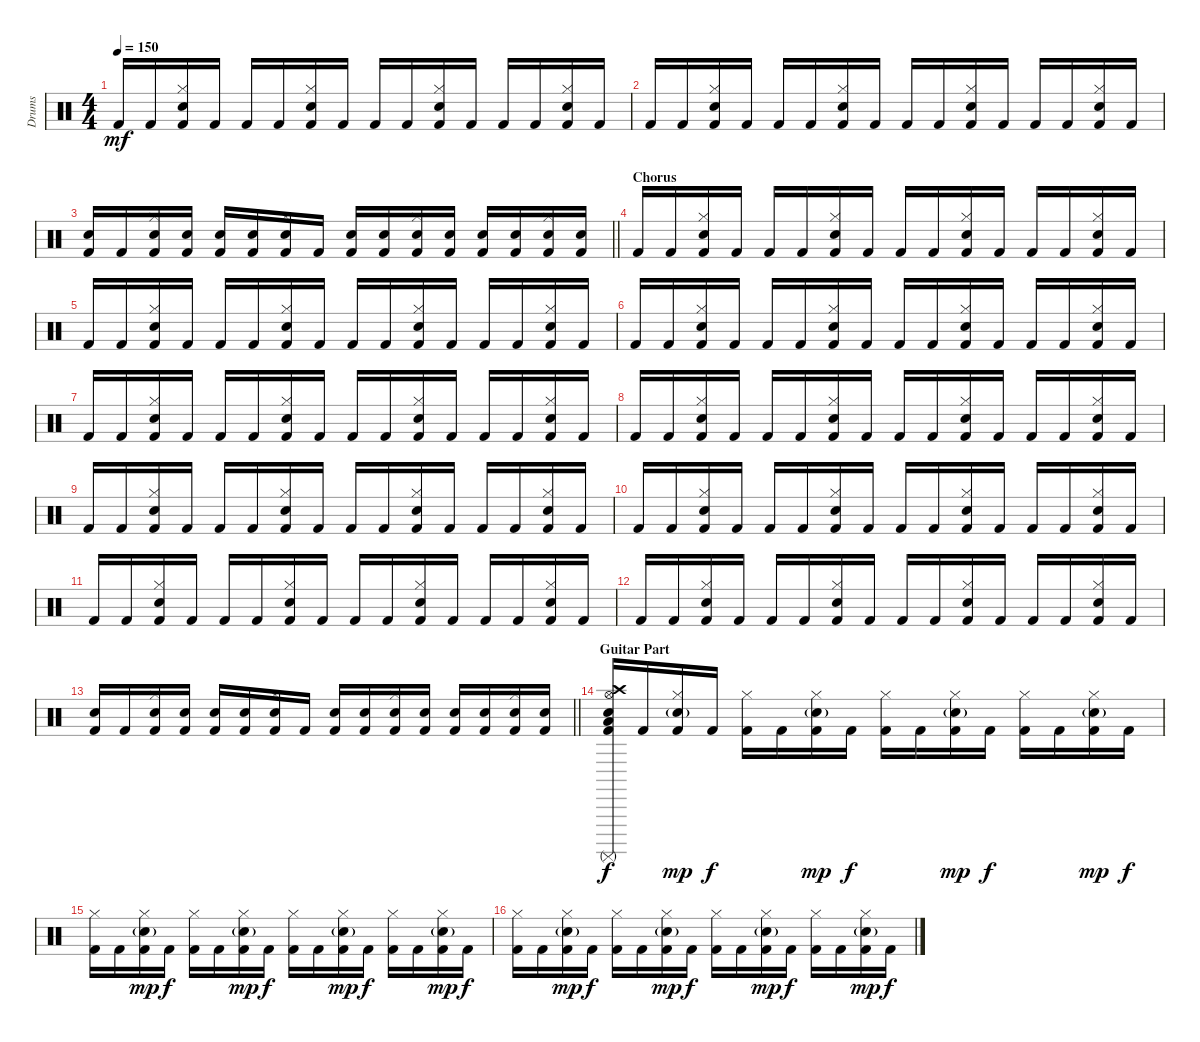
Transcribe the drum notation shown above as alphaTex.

\track ("Drums" "Drums") {instrument percussion}
\staff {score}
\articulation defaults
\ts (4 4)
\tempo 150
\clef neutral
\ks c "Kick (hit) 2".16{dy mf} "Kick (hit) 2".16
("Hi-Hat (closed)" "Electric Snare (hit)" "Kick (hit) 2").16 "Kick (hit) 2".16 "Kick (hit) 2".16 "Kick (hit) 2".16 ("Hi-Hat (closed)" "Electric Snare (hit)" "Kick (hit) 2").16 "Kick (hit) 2".16 "Kick (hit) 2".16 "Kick (hit) 2".16 ("Hi-Hat (closed)" "Electric Snare (hit)" "Kick (hit) 2").16 "Kick (hit) 2".16 "Kick (hit) 2".16 "Kick (hit) 2".16 ("Hi-Hat (closed)" "Electric Snare (hit)" "Kick (hit) 2").16 "Kick (hit) 2".16 |
"Kick (hit) 2".16 "Kick (hit) 2".16 ("Hi-Hat (closed)" "Electric Snare (hit)" "Kick (hit) 2").16 "Kick (hit) 2".16 "Kick (hit) 2".16 "Kick (hit) 2".16 ("Hi-Hat (closed)" "Electric Snare (hit)" "Kick (hit) 2").16 "Kick (hit) 2".16 "Kick (hit) 2".16 "Kick (hit) 2".16 ("Hi-Hat (closed)" "Electric Snare (hit)" "Kick (hit) 2").16 "Kick (hit) 2".16 "Kick (hit) 2".16 "Kick (hit) 2".16 ("Hi-Hat (closed)" "Electric Snare (hit)" "Kick (hit) 2").16 "Kick (hit) 2".16 |
\barLineRight lightlight
("Electric Snare (hit)" "Kick (hit) 2").16 "Kick (hit) 2".16 ("Hi-Hat (closed)" "Electric Snare (hit)" "Kick (hit) 2").16 ("Electric Snare (hit)" "Kick (hit) 2").16 ("Electric Snare (hit)" "Kick (hit) 2").16 ("Electric Snare (hit)" "Kick (hit) 2").16 ("Hi-Hat (closed)" "Electric Snare (hit)" "Kick (hit) 2").16 "Kick (hit) 2".16 ("Electric Snare (hit)" "Kick (hit) 2").16 ("Electric Snare (hit)" "Kick (hit) 2").16 ("Hi-Hat (closed)" "Electric Snare (hit)" "Kick (hit) 2").16 ("Electric Snare (hit)" "Kick (hit) 2").16 ("Electric Snare (hit)" "Kick (hit) 2").16 ("Electric Snare (hit)" "Kick (hit) 2").16 ("Hi-Hat (closed)" "Electric Snare (hit)" "Kick (hit) 2").16 ("Electric Snare (hit)" "Kick (hit) 2").16 |
\section ("" "Chorus")
"Kick (hit) 2".16 "Kick (hit) 2".16 ("Hi-Hat (closed)" "Electric Snare (hit)" "Kick (hit) 2").16 "Kick (hit) 2".16 "Kick (hit) 2".16 "Kick (hit) 2".16 ("Hi-Hat (closed)" "Electric Snare (hit)" "Kick (hit) 2").16 "Kick (hit) 2".16 "Kick (hit) 2".16 "Kick (hit) 2".16 ("Hi-Hat (closed)" "Electric Snare (hit)" "Kick (hit) 2").16 "Kick (hit) 2".16 "Kick (hit) 2".16 "Kick (hit) 2".16 ("Hi-Hat (closed)" "Electric Snare (hit)" "Kick (hit) 2").16 "Kick (hit) 2".16 |
"Kick (hit) 2".16 "Kick (hit) 2".16 ("Hi-Hat (closed)" "Electric Snare (hit)" "Kick (hit) 2").16 "Kick (hit) 2".16 "Kick (hit) 2".16 "Kick (hit) 2".16 ("Hi-Hat (closed)" "Electric Snare (hit)" "Kick (hit) 2").16 "Kick (hit) 2".16 "Kick (hit) 2".16 "Kick (hit) 2".16 ("Hi-Hat (closed)" "Electric Snare (hit)" "Kick (hit) 2").16 "Kick (hit) 2".16 "Kick (hit) 2".16 "Kick (hit) 2".16 ("Hi-Hat (closed)" "Electric Snare (hit)" "Kick (hit) 2").16 "Kick (hit) 2".16 |
"Kick (hit) 2".16 "Kick (hit) 2".16 ("Hi-Hat (closed)" "Electric Snare (hit)" "Kick (hit) 2").16 "Kick (hit) 2".16 "Kick (hit) 2".16 "Kick (hit) 2".16 ("Hi-Hat (closed)" "Electric Snare (hit)" "Kick (hit) 2").16 "Kick (hit) 2".16 "Kick (hit) 2".16 "Kick (hit) 2".16 ("Hi-Hat (closed)" "Electric Snare (hit)" "Kick (hit) 2").16 "Kick (hit) 2".16 "Kick (hit) 2".16 "Kick (hit) 2".16 ("Hi-Hat (closed)" "Electric Snare (hit)" "Kick (hit) 2").16 "Kick (hit) 2".16 |
"Kick (hit) 2".16 "Kick (hit) 2".16 ("Hi-Hat (closed)" "Electric Snare (hit)" "Kick (hit) 2").16 "Kick (hit) 2".16 "Kick (hit) 2".16 "Kick (hit) 2".16 ("Hi-Hat (closed)" "Electric Snare (hit)" "Kick (hit) 2").16 "Kick (hit) 2".16 "Kick (hit) 2".16 "Kick (hit) 2".16 ("Hi-Hat (closed)" "Electric Snare (hit)" "Kick (hit) 2").16 "Kick (hit) 2".16 "Kick (hit) 2".16 "Kick (hit) 2".16 ("Hi-Hat (closed)" "Electric Snare (hit)" "Kick (hit) 2").16 "Kick (hit) 2".16 |
"Kick (hit) 2".16 "Kick (hit) 2".16 ("Hi-Hat (closed)" "Electric Snare (hit)" "Kick (hit) 2").16 "Kick (hit) 2".16 "Kick (hit) 2".16 "Kick (hit) 2".16 ("Hi-Hat (closed)" "Electric Snare (hit)" "Kick (hit) 2").16 "Kick (hit) 2".16 "Kick (hit) 2".16 "Kick (hit) 2".16 ("Hi-Hat (closed)" "Electric Snare (hit)" "Kick (hit) 2").16 "Kick (hit) 2".16 "Kick (hit) 2".16 "Kick (hit) 2".16 ("Hi-Hat (closed)" "Electric Snare (hit)" "Kick (hit) 2").16 "Kick (hit) 2".16 |
"Kick (hit) 2".16 "Kick (hit) 2".16 ("Hi-Hat (closed)" "Electric Snare (hit)" "Kick (hit) 2").16 "Kick (hit) 2".16 "Kick (hit) 2".16 "Kick (hit) 2".16 ("Hi-Hat (closed)" "Electric Snare (hit)" "Kick (hit) 2").16 "Kick (hit) 2".16 "Kick (hit) 2".16 "Kick (hit) 2".16 ("Hi-Hat (closed)" "Electric Snare (hit)" "Kick (hit) 2").16 "Kick (hit) 2".16 "Kick (hit) 2".16 "Kick (hit) 2".16 ("Hi-Hat (closed)" "Electric Snare (hit)" "Kick (hit) 2").16 "Kick (hit) 2".16 |
"Kick (hit) 2".16 "Kick (hit) 2".16 ("Hi-Hat (closed)" "Electric Snare (hit)" "Kick (hit) 2").16 "Kick (hit) 2".16 "Kick (hit) 2".16 "Kick (hit) 2".16 ("Hi-Hat (closed)" "Electric Snare (hit)" "Kick (hit) 2").16 "Kick (hit) 2".16 "Kick (hit) 2".16 "Kick (hit) 2".16 ("Hi-Hat (closed)" "Electric Snare (hit)" "Kick (hit) 2").16 "Kick (hit) 2".16 "Kick (hit) 2".16 "Kick (hit) 2".16 ("Hi-Hat (closed)" "Electric Snare (hit)" "Kick (hit) 2").16 "Kick (hit) 2".16 |
"Kick (hit) 2".16 "Kick (hit) 2".16 ("Hi-Hat (closed)" "Electric Snare (hit)" "Kick (hit) 2").16 "Kick (hit) 2".16 "Kick (hit) 2".16 "Kick (hit) 2".16 ("Hi-Hat (closed)" "Electric Snare (hit)" "Kick (hit) 2").16 "Kick (hit) 2".16 "Kick (hit) 2".16 "Kick (hit) 2".16 ("Hi-Hat (closed)" "Electric Snare (hit)" "Kick (hit) 2").16 "Kick (hit) 2".16 "Kick (hit) 2".16 "Kick (hit) 2".16 ("Hi-Hat (closed)" "Electric Snare (hit)" "Kick (hit) 2").16 "Kick (hit) 2".16 |
"Kick (hit) 2".16 "Kick (hit) 2".16 ("Hi-Hat (closed)" "Electric Snare (hit)" "Kick (hit) 2").16 "Kick (hit) 2".16 "Kick (hit) 2".16 "Kick (hit) 2".16 ("Hi-Hat (closed)" "Electric Snare (hit)" "Kick (hit) 2").16 "Kick (hit) 2".16 "Kick (hit) 2".16 "Kick (hit) 2".16 ("Hi-Hat (closed)" "Electric Snare (hit)" "Kick (hit) 2").16 "Kick (hit) 2".16 "Kick (hit) 2".16 "Kick (hit) 2".16 ("Hi-Hat (closed)" "Electric Snare (hit)" "Kick (hit) 2").16 "Kick (hit) 2".16 |
\barLineRight lightlight
("Electric Snare (hit)" "Kick (hit) 2").16 "Kick (hit) 2".16 ("Hi-Hat (closed)" "Electric Snare (hit)" "Kick (hit) 2").16 ("Electric Snare (hit)" "Kick (hit) 2").16 ("Electric Snare (hit)" "Kick (hit) 2").16 ("Electric Snare (hit)" "Kick (hit) 2").16 ("Hi-Hat (closed)" "Electric Snare (hit)" "Kick (hit) 2").16 "Kick (hit) 2".16 ("Electric Snare (hit)" "Kick (hit) 2").16 ("Electric Snare (hit)" "Kick (hit) 2").16 ("Hi-Hat (closed)" "Electric Snare (hit)" "Kick (hit) 2").16 ("Electric Snare (hit)" "Kick (hit) 2").16 ("Electric Snare (hit)" "Kick (hit) 2").16 ("Electric Snare (hit)" "Kick (hit) 2").16 ("Hi-Hat (closed)" "Electric Snare (hit)" "Kick (hit) 2").16 ("Electric Snare (hit)" "Kick (hit) 2").16 |
\section ("" "Guitar Part")
("Crash high (hit)" "Hi-Hat (open)" "Electric Snare (hit)" "Low Floor Tom (hit)" "Surdo (mute)" "Kick (hit) 2").16{dy f} "Kick (hit) 2".16 ("Hi-Hat (closed)" "Electric Snare (hit)"{g} "Kick (hit) 2").16{dy mp} "Kick (hit) 2".16{dy f} ("Hi-Hat (closed)" "Kick (hit) 2").16 "Kick (hit) 2".16 ("Hi-Hat (closed)" "Electric Snare (hit)"{g} "Kick (hit) 2").16{dy mp} "Kick (hit) 2".16{dy f} ("Hi-Hat (closed)" "Kick (hit) 2").16 "Kick (hit) 2".16 ("Hi-Hat (closed)" "Electric Snare (hit)"{g} "Kick (hit) 2").16{dy mp} "Kick (hit) 2".16{dy f} ("Hi-Hat (closed)" "Kick (hit) 2").16 "Kick (hit) 2".16 ("Hi-Hat (closed)" "Electric Snare (hit)"{g} "Kick (hit) 2").16{dy mp} "Kick (hit) 2".16{dy f} |
("Hi-Hat (closed)" "Kick (hit) 2").16 "Kick (hit) 2".16 ("Hi-Hat (closed)" "Electric Snare (hit)"{g} "Kick (hit) 2").16{dy mp} "Kick (hit) 2".16{dy f} ("Hi-Hat (closed)" "Kick (hit) 2").16 "Kick (hit) 2".16 ("Hi-Hat (closed)" "Electric Snare (hit)"{g} "Kick (hit) 2").16{dy mp} "Kick (hit) 2".16{dy f} ("Hi-Hat (closed)" "Kick (hit) 2").16 "Kick (hit) 2".16 ("Hi-Hat (closed)" "Electric Snare (hit)"{g} "Kick (hit) 2").16{dy mp} "Kick (hit) 2".16{dy f} ("Hi-Hat (closed)" "Kick (hit) 2").16 "Kick (hit) 2".16 ("Hi-Hat (closed)" "Electric Snare (hit)"{g} "Kick (hit) 2").16{dy mp} "Kick (hit) 2".16{dy f} |
("Hi-Hat (closed)" "Kick (hit) 2").16 "Kick (hit) 2".16 ("Hi-Hat (closed)" "Electric Snare (hit)"{g} "Kick (hit) 2").16{dy mp} "Kick (hit) 2".16{dy f} ("Hi-Hat (closed)" "Kick (hit) 2").16 "Kick (hit) 2".16 ("Hi-Hat (closed)" "Electric Snare (hit)"{g} "Kick (hit) 2").16{dy mp} "Kick (hit) 2".16{dy f} ("Hi-Hat (closed)" "Kick (hit) 2").16 "Kick (hit) 2".16 ("Hi-Hat (closed)" "Electric Snare (hit)"{g} "Kick (hit) 2").16{dy mp} "Kick (hit) 2".16{dy f} ("Hi-Hat (closed)" "Kick (hit) 2").16 "Kick (hit) 2".16 ("Hi-Hat (closed)" "Electric Snare (hit)"{g} "Kick (hit) 2").16{dy mp} "Kick (hit) 2".16{dy f}
